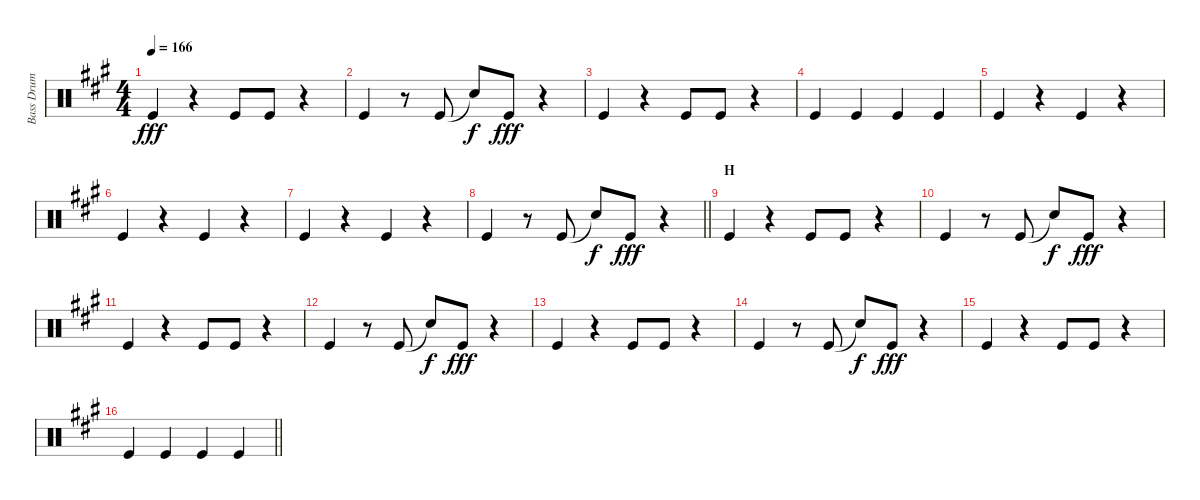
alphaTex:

\track ("Bass Drum" "Bass Drum") {instrument percussion}
\staff {score}
\articulation defaults
\ts (4 4)
\tempo 166
\clef neutral
\ks a "Kick (hit)".4{dy fff}
r.4 "Kick (hit)".8 "Kick (hit)".8 r.4 |
"Kick (hit)".4 r.8 "Kick (hit)".8 "Snare (hit)"{t}.8{dy f} "Kick (hit)".8{dy fff} r.4 |
"Kick (hit)".4 r.4 "Kick (hit)".8 "Kick (hit)".8 r.4 |
"Kick (hit)".4 "Kick (hit)".4 "Kick (hit)".4 "Kick (hit)".4 |
"Kick (hit)".4 r.4 "Kick (hit)".4 r.4 |
"Kick (hit)".4 r.4 "Kick (hit)".4 r.4 |
"Kick (hit)".4 r.4 "Kick (hit)".4 r.4 |
\barLineRight lightlight "Kick (hit)".4
r.8 "Kick (hit)".8 "Snare (hit)"{t}.8{dy f} "Kick (hit)".8{dy fff} r.4 |
\section ("" "H")
"Kick (hit)".4 r.4 "Kick (hit)".8 "Kick (hit)".8 r.4 |
"Kick (hit)".4 r.8 "Kick (hit)".8 "Snare (hit)"{t}.8{dy f} "Kick (hit)".8{dy fff} r.4 |
"Kick (hit)".4 r.4 "Kick (hit)".8 "Kick (hit)".8 r.4 |
"Kick (hit)".4 r.8 "Kick (hit)".8 "Snare (hit)"{t}.8{dy f} "Kick (hit)".8{dy fff} r.4 |
"Kick (hit)".4 r.4 "Kick (hit)".8 "Kick (hit)".8 r.4 |
"Kick (hit)".4 r.8 "Kick (hit)".8 "Snare (hit)"{t}.8{dy f} "Kick (hit)".8{dy fff} r.4 |
"Kick (hit)".4 r.4 "Kick (hit)".8 "Kick (hit)".8 r.4 |
\barLineRight lightlight "Kick (hit)".4 "Kick (hit)".4 "Kick (hit)".4 "Kick (hit)".4
